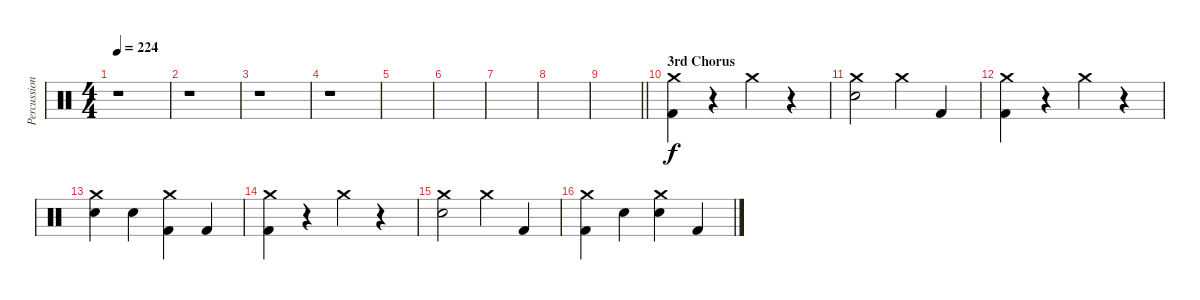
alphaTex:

\track ("Percussion" "Percussion") {instrument percussion}
\staff {score}
\articulation defaults
\ts (4 4)
\tempo 224
\clef neutral
\ks c
r.1{dy f} |
r.1 |
r.1 |
r.1 |
|
|
|
|
\barLineRight lightlight
|
\section ("" "3rd Chorus")
("Kick (hit) 2" "Crash medium (hit)").4 r.4 "Crash medium (hit)".4 r.4 |
("Snare (hit) 2" "Crash medium (hit)").2 "Crash medium (hit)".4 "Kick (hit) 2".4 |
("Kick (hit) 2" "Crash medium (hit)").4 r.4 "Crash medium (hit)".4 r.4 |
("Snare (hit) 2" "Crash medium (hit)").4 "Snare (hit) 2".4 ("Kick (hit) 2" "Crash medium (hit)").4 "Kick (hit) 2".4 |
("Kick (hit) 2" "Crash medium (hit)").4 r.4 "Crash medium (hit)".4 r.4 |
("Snare (hit) 2" "Crash medium (hit)").2 "Crash medium (hit)".4 "Kick (hit) 2".4 |
("Kick (hit) 2" "Crash medium (hit)").4 "Snare (hit) 2".4 ("Snare (hit) 2" "Crash medium (hit)").4 "Kick (hit) 2".4
